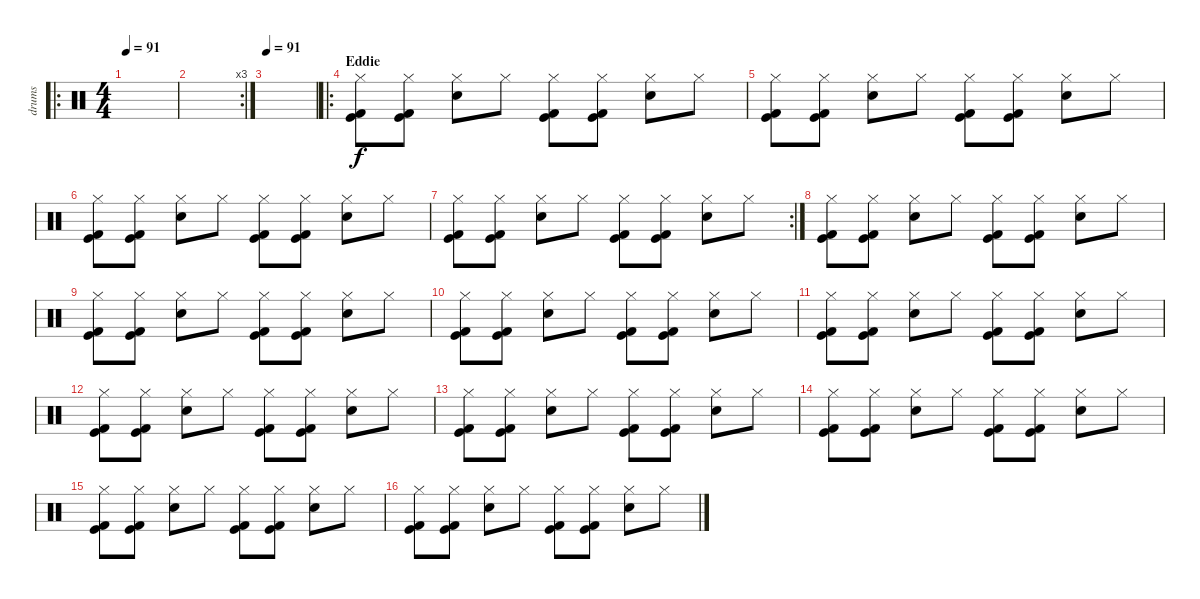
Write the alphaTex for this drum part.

\track ("drums" "drums") {instrument percussion}
\staff {score}
\articulation defaults
\ro
\ts (4 4)
\tempo 91
\tempo 150
\tempo 91
\clef neutral
\ks c
|
\rc 3
|
\tempo 91
|
\ro
\section ("" "Eddie")
("Hi-Hat (closed)" "Kick (hit) 2" "Kick (hit)").8 ("Hi-Hat (closed)" "Kick (hit) 2" "Kick (hit)").8 ("Hi-Hat (closed)" "Electric Snare (hit)").8 "Hi-Hat (closed)".8 ("Hi-Hat (closed)" "Kick (hit) 2" "Kick (hit)").8 ("Hi-Hat (closed)" "Kick (hit) 2" "Kick (hit)").8 ("Hi-Hat (closed)" "Electric Snare (hit)").8 "Hi-Hat (closed)".8 |
("Hi-Hat (closed)" "Kick (hit) 2" "Kick (hit)").8 ("Hi-Hat (closed)" "Kick (hit) 2" "Kick (hit)").8 ("Hi-Hat (closed)" "Electric Snare (hit)").8 "Hi-Hat (closed)".8 ("Hi-Hat (closed)" "Kick (hit) 2" "Kick (hit)").8 ("Hi-Hat (closed)" "Kick (hit) 2" "Kick (hit)").8 ("Hi-Hat (closed)" "Electric Snare (hit)").8 "Hi-Hat (closed)".8 |
("Hi-Hat (closed)" "Kick (hit) 2" "Kick (hit)").8 ("Hi-Hat (closed)" "Kick (hit) 2" "Kick (hit)").8 ("Hi-Hat (closed)" "Electric Snare (hit)").8 "Hi-Hat (closed)".8 ("Hi-Hat (closed)" "Kick (hit) 2" "Kick (hit)").8 ("Hi-Hat (closed)" "Kick (hit) 2" "Kick (hit)").8 ("Hi-Hat (closed)" "Electric Snare (hit)").8 "Hi-Hat (closed)".8 |
\rc 2
("Hi-Hat (closed)" "Kick (hit) 2" "Kick (hit)").8 ("Hi-Hat (closed)" "Kick (hit) 2" "Kick (hit)").8 ("Hi-Hat (closed)" "Electric Snare (hit)").8 "Hi-Hat (closed)".8 ("Hi-Hat (closed)" "Kick (hit) 2" "Kick (hit)").8 ("Hi-Hat (closed)" "Kick (hit) 2" "Kick (hit)").8 ("Hi-Hat (closed)" "Electric Snare (hit)").8 "Hi-Hat (closed)".8 |
("Hi-Hat (closed)" "Kick (hit) 2" "Kick (hit)").8 ("Hi-Hat (closed)" "Kick (hit) 2" "Kick (hit)").8 ("Hi-Hat (closed)" "Electric Snare (hit)").8 "Hi-Hat (closed)".8 ("Hi-Hat (closed)" "Kick (hit) 2" "Kick (hit)").8 ("Hi-Hat (closed)" "Kick (hit) 2" "Kick (hit)").8 ("Hi-Hat (closed)" "Electric Snare (hit)").8 "Hi-Hat (closed)".8 |
("Hi-Hat (closed)" "Kick (hit) 2" "Kick (hit)").8 ("Hi-Hat (closed)" "Kick (hit) 2" "Kick (hit)").8 ("Hi-Hat (closed)" "Electric Snare (hit)").8 "Hi-Hat (closed)".8 ("Hi-Hat (closed)" "Kick (hit) 2" "Kick (hit)").8 ("Hi-Hat (closed)" "Kick (hit) 2" "Kick (hit)").8 ("Hi-Hat (closed)" "Electric Snare (hit)").8 "Hi-Hat (closed)".8 |
("Hi-Hat (closed)" "Kick (hit) 2" "Kick (hit)").8 ("Hi-Hat (closed)" "Kick (hit) 2" "Kick (hit)").8 ("Hi-Hat (closed)" "Electric Snare (hit)").8 "Hi-Hat (closed)".8 ("Hi-Hat (closed)" "Kick (hit) 2" "Kick (hit)").8 ("Hi-Hat (closed)" "Kick (hit) 2" "Kick (hit)").8 ("Hi-Hat (closed)" "Electric Snare (hit)").8 "Hi-Hat (closed)".8 |
("Hi-Hat (closed)" "Kick (hit) 2" "Kick (hit)").8 ("Hi-Hat (closed)" "Kick (hit) 2" "Kick (hit)").8 ("Hi-Hat (closed)" "Electric Snare (hit)").8 "Hi-Hat (closed)".8 ("Hi-Hat (closed)" "Kick (hit) 2" "Kick (hit)").8 ("Hi-Hat (closed)" "Kick (hit) 2" "Kick (hit)").8 ("Hi-Hat (closed)" "Electric Snare (hit)").8 "Hi-Hat (closed)".8 |
("Hi-Hat (closed)" "Kick (hit) 2" "Kick (hit)").8 ("Hi-Hat (closed)" "Kick (hit) 2" "Kick (hit)").8 ("Hi-Hat (closed)" "Electric Snare (hit)").8 "Hi-Hat (closed)".8 ("Hi-Hat (closed)" "Kick (hit) 2" "Kick (hit)").8 ("Hi-Hat (closed)" "Kick (hit) 2" "Kick (hit)").8 ("Hi-Hat (closed)" "Electric Snare (hit)").8 "Hi-Hat (closed)".8 |
("Hi-Hat (closed)" "Kick (hit) 2" "Kick (hit)").8 ("Hi-Hat (closed)" "Kick (hit) 2" "Kick (hit)").8 ("Hi-Hat (closed)" "Electric Snare (hit)").8 "Hi-Hat (closed)".8 ("Hi-Hat (closed)" "Kick (hit) 2" "Kick (hit)").8 ("Hi-Hat (closed)" "Kick (hit) 2" "Kick (hit)").8 ("Hi-Hat (closed)" "Electric Snare (hit)").8 "Hi-Hat (closed)".8 |
("Hi-Hat (closed)" "Kick (hit) 2" "Kick (hit)").8 ("Hi-Hat (closed)" "Kick (hit) 2" "Kick (hit)").8 ("Hi-Hat (closed)" "Electric Snare (hit)").8 "Hi-Hat (closed)".8 ("Hi-Hat (closed)" "Kick (hit) 2" "Kick (hit)").8 ("Hi-Hat (closed)" "Kick (hit) 2" "Kick (hit)").8 ("Hi-Hat (closed)" "Electric Snare (hit)").8 "Hi-Hat (closed)".8 |
("Hi-Hat (closed)" "Kick (hit) 2" "Kick (hit)").8 ("Hi-Hat (closed)" "Kick (hit) 2" "Kick (hit)").8 ("Hi-Hat (closed)" "Electric Snare (hit)").8 "Hi-Hat (closed)".8 ("Hi-Hat (closed)" "Kick (hit) 2" "Kick (hit)").8 ("Hi-Hat (closed)" "Kick (hit) 2" "Kick (hit)").8 ("Hi-Hat (closed)" "Electric Snare (hit)").8 "Hi-Hat (closed)".8 |
("Hi-Hat (closed)" "Kick (hit) 2" "Kick (hit)").8 ("Hi-Hat (closed)" "Kick (hit) 2" "Kick (hit)").8 ("Hi-Hat (closed)" "Electric Snare (hit)").8 "Hi-Hat (closed)".8 ("Hi-Hat (closed)" "Kick (hit) 2" "Kick (hit)").8 ("Hi-Hat (closed)" "Kick (hit) 2" "Kick (hit)").8 ("Hi-Hat (closed)" "Electric Snare (hit)").8 "Hi-Hat (closed)".8
